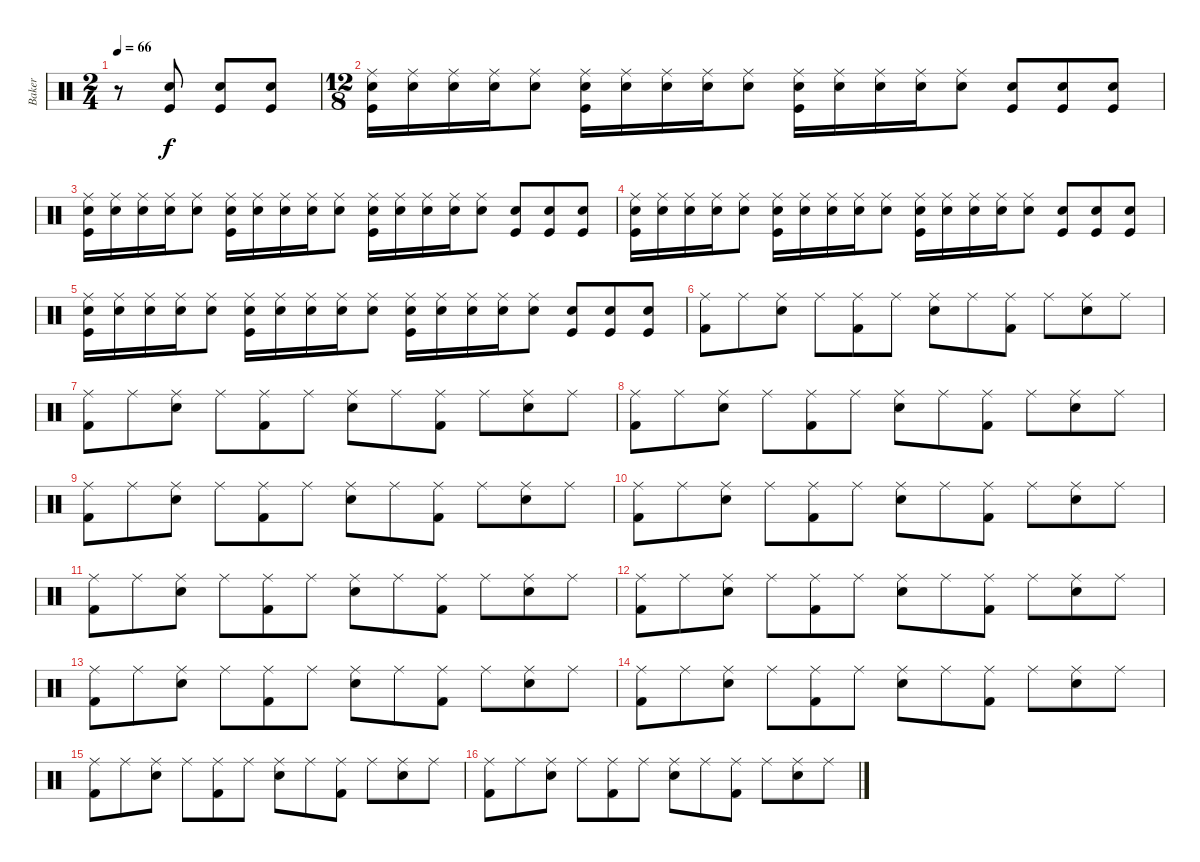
\track ("Baker" "Baker") {instrument percussion}
\staff {score}
\articulation defaults
\ts (2 4)
\tempo 66
\clef neutral
\ks c
r.8{dy f} ("Electric Snare (hit)" "Kick (hit)").8 ("Electric Snare (hit)" "Kick (hit)").8 ("Electric Snare (hit)" "Kick (hit)").8 |
\ts (12 8)
("Electric Snare (hit)" "Kick (hit)" "Ride (middle)").16 ("Electric Snare (hit)" "Ride (middle)").16 ("Electric Snare (hit)" "Ride (middle)").16 ("Electric Snare (hit)" "Ride (middle)").16 ("Electric Snare (hit)" "Ride (middle)").8 ("Electric Snare (hit)" "Kick (hit)" "Ride (middle)").16 ("Electric Snare (hit)" "Ride (middle)").16 ("Electric Snare (hit)" "Ride (middle)").16 ("Electric Snare (hit)" "Ride (middle)").16 ("Electric Snare (hit)" "Ride (middle)").8 ("Electric Snare (hit)" "Kick (hit)" "Ride (middle)").16 ("Electric Snare (hit)" "Ride (middle)").16 ("Electric Snare (hit)" "Ride (middle)").16 ("Electric Snare (hit)" "Ride (middle)").16 ("Electric Snare (hit)" "Ride (middle)").8 ("Electric Snare (hit)" "Kick (hit)").8 ("Electric Snare (hit)" "Kick (hit)").8 ("Electric Snare (hit)" "Kick (hit)").8 |
("Electric Snare (hit)" "Kick (hit)" "Ride (middle)").16 ("Electric Snare (hit)" "Ride (middle)").16 ("Electric Snare (hit)" "Ride (middle)").16 ("Electric Snare (hit)" "Ride (middle)").16 ("Electric Snare (hit)" "Ride (middle)").8 ("Electric Snare (hit)" "Kick (hit)" "Ride (middle)").16 ("Electric Snare (hit)" "Ride (middle)").16 ("Electric Snare (hit)" "Ride (middle)").16 ("Electric Snare (hit)" "Ride (middle)").16 ("Electric Snare (hit)" "Ride (middle)").8 ("Electric Snare (hit)" "Kick (hit)" "Ride (middle)").16 ("Electric Snare (hit)" "Ride (middle)").16 ("Electric Snare (hit)" "Ride (middle)").16 ("Electric Snare (hit)" "Ride (middle)").16 ("Electric Snare (hit)" "Ride (middle)").8 ("Electric Snare (hit)" "Kick (hit)").8 ("Electric Snare (hit)" "Kick (hit)").8 ("Electric Snare (hit)" "Kick (hit)").8 |
("Electric Snare (hit)" "Kick (hit)" "Ride (middle)").16 ("Electric Snare (hit)" "Ride (middle)").16 ("Electric Snare (hit)" "Ride (middle)").16 ("Electric Snare (hit)" "Ride (middle)").16 ("Electric Snare (hit)" "Ride (middle)").8 ("Electric Snare (hit)" "Kick (hit)" "Ride (middle)").16 ("Electric Snare (hit)" "Ride (middle)").16 ("Electric Snare (hit)" "Ride (middle)").16 ("Electric Snare (hit)" "Ride (middle)").16 ("Electric Snare (hit)" "Ride (middle)").8 ("Electric Snare (hit)" "Kick (hit)" "Ride (middle)").16 ("Electric Snare (hit)" "Ride (middle)").16 ("Electric Snare (hit)" "Ride (middle)").16 ("Electric Snare (hit)" "Ride (middle)").16 ("Electric Snare (hit)" "Ride (middle)").8 ("Electric Snare (hit)" "Kick (hit)").8 ("Electric Snare (hit)" "Kick (hit)").8 ("Electric Snare (hit)" "Kick (hit)").8 |
("Electric Snare (hit)" "Kick (hit)" "Ride (middle)").16 ("Electric Snare (hit)" "Ride (middle)").16 ("Electric Snare (hit)" "Ride (middle)").16 ("Electric Snare (hit)" "Ride (middle)").16 ("Electric Snare (hit)" "Ride (middle)").8 ("Electric Snare (hit)" "Kick (hit)" "Ride (middle)").16 ("Electric Snare (hit)" "Ride (middle)").16 ("Electric Snare (hit)" "Ride (middle)").16 ("Electric Snare (hit)" "Ride (middle)").16 ("Electric Snare (hit)" "Ride (middle)").8 ("Electric Snare (hit)" "Kick (hit)" "Ride (middle)").16 ("Electric Snare (hit)" "Ride (middle)").16 ("Electric Snare (hit)" "Ride (middle)").16 ("Electric Snare (hit)" "Ride (middle)").16 ("Electric Snare (hit)" "Ride (middle)").8 ("Electric Snare (hit)" "Kick (hit)").8 ("Electric Snare (hit)" "Kick (hit)").8 ("Electric Snare (hit)" "Kick (hit)").8 |
("Kick (hit) 2" "Ride (middle)").8 "Ride (middle)".8 ("Electric Snare (hit)" "Ride (middle)").8 "Ride (middle)".8 ("Kick (hit) 2" "Ride (middle)").8 "Ride (middle)".8 ("Electric Snare (hit)" "Ride (middle)").8 "Ride (middle)".8 ("Kick (hit) 2" "Ride (middle)").8 "Ride (middle)".8 ("Electric Snare (hit)" "Ride (middle)").8 "Ride (middle)".8 |
("Kick (hit) 2" "Ride (middle)").8 "Ride (middle)".8 ("Electric Snare (hit)" "Ride (middle)").8 "Ride (middle)".8 ("Kick (hit) 2" "Ride (middle)").8 "Ride (middle)".8 ("Electric Snare (hit)" "Ride (middle)").8 "Ride (middle)".8 ("Kick (hit) 2" "Ride (middle)").8 "Ride (middle)".8 ("Electric Snare (hit)" "Ride (middle)").8 "Ride (middle)".8 |
("Kick (hit) 2" "Ride (middle)").8 "Ride (middle)".8 ("Electric Snare (hit)" "Ride (middle)").8 "Ride (middle)".8 ("Kick (hit) 2" "Ride (middle)").8 "Ride (middle)".8 ("Electric Snare (hit)" "Ride (middle)").8 "Ride (middle)".8 ("Kick (hit) 2" "Ride (middle)").8 "Ride (middle)".8 ("Electric Snare (hit)" "Ride (middle)").8 "Ride (middle)".8 |
("Kick (hit) 2" "Ride (middle)").8 "Ride (middle)".8 ("Electric Snare (hit)" "Ride (middle)").8 "Ride (middle)".8 ("Kick (hit) 2" "Ride (middle)").8 "Ride (middle)".8 ("Electric Snare (hit)" "Ride (middle)").8 "Ride (middle)".8 ("Kick (hit) 2" "Ride (middle)").8 "Ride (middle)".8 ("Electric Snare (hit)" "Ride (middle)").8 "Ride (middle)".8 |
("Kick (hit) 2" "Ride (middle)").8 "Ride (middle)".8 ("Electric Snare (hit)" "Ride (middle)").8 "Ride (middle)".8 ("Kick (hit) 2" "Ride (middle)").8 "Ride (middle)".8 ("Electric Snare (hit)" "Ride (middle)").8 "Ride (middle)".8 ("Kick (hit) 2" "Ride (middle)").8 "Ride (middle)".8 ("Electric Snare (hit)" "Ride (middle)").8 "Ride (middle)".8 |
("Kick (hit) 2" "Ride (middle)").8 "Ride (middle)".8 ("Electric Snare (hit)" "Ride (middle)").8 "Ride (middle)".8 ("Kick (hit) 2" "Ride (middle)").8 "Ride (middle)".8 ("Electric Snare (hit)" "Ride (middle)").8 "Ride (middle)".8 ("Kick (hit) 2" "Ride (middle)").8 "Ride (middle)".8 ("Electric Snare (hit)" "Ride (middle)").8 "Ride (middle)".8 |
("Kick (hit) 2" "Ride (middle)").8 "Ride (middle)".8 ("Electric Snare (hit)" "Ride (middle)").8 "Ride (middle)".8 ("Kick (hit) 2" "Ride (middle)").8 "Ride (middle)".8 ("Electric Snare (hit)" "Ride (middle)").8 "Ride (middle)".8 ("Kick (hit) 2" "Ride (middle)").8 "Ride (middle)".8 ("Electric Snare (hit)" "Ride (middle)").8 "Ride (middle)".8 |
("Kick (hit) 2" "Ride (middle)").8 "Ride (middle)".8 ("Electric Snare (hit)" "Ride (middle)").8 "Ride (middle)".8 ("Kick (hit) 2" "Ride (middle)").8 "Ride (middle)".8 ("Electric Snare (hit)" "Ride (middle)").8 "Ride (middle)".8 ("Kick (hit) 2" "Ride (middle)").8 "Ride (middle)".8 ("Electric Snare (hit)" "Ride (middle)").8 "Ride (middle)".8 |
("Kick (hit) 2" "Ride (middle)").8 "Ride (middle)".8 ("Electric Snare (hit)" "Ride (middle)").8 "Ride (middle)".8 ("Kick (hit) 2" "Ride (middle)").8 "Ride (middle)".8 ("Electric Snare (hit)" "Ride (middle)").8 "Ride (middle)".8 ("Kick (hit) 2" "Ride (middle)").8 "Ride (middle)".8 ("Electric Snare (hit)" "Ride (middle)").8 "Ride (middle)".8 |
("Kick (hit) 2" "Ride (middle)").8 "Ride (middle)".8 ("Electric Snare (hit)" "Ride (middle)").8 "Ride (middle)".8 ("Kick (hit) 2" "Ride (middle)").8 "Ride (middle)".8 ("Electric Snare (hit)" "Ride (middle)").8 "Ride (middle)".8 ("Kick (hit) 2" "Ride (middle)").8 "Ride (middle)".8 ("Electric Snare (hit)" "Ride (middle)").8 "Ride (middle)".8 |
("Kick (hit) 2" "Ride (middle)").8 "Ride (middle)".8 ("Electric Snare (hit)" "Ride (middle)").8 "Ride (middle)".8 ("Kick (hit) 2" "Ride (middle)").8 "Ride (middle)".8 ("Electric Snare (hit)" "Ride (middle)").8 "Ride (middle)".8 ("Kick (hit) 2" "Ride (middle)").8 "Ride (middle)".8 ("Electric Snare (hit)" "Ride (middle)").8 "Ride (middle)".8
